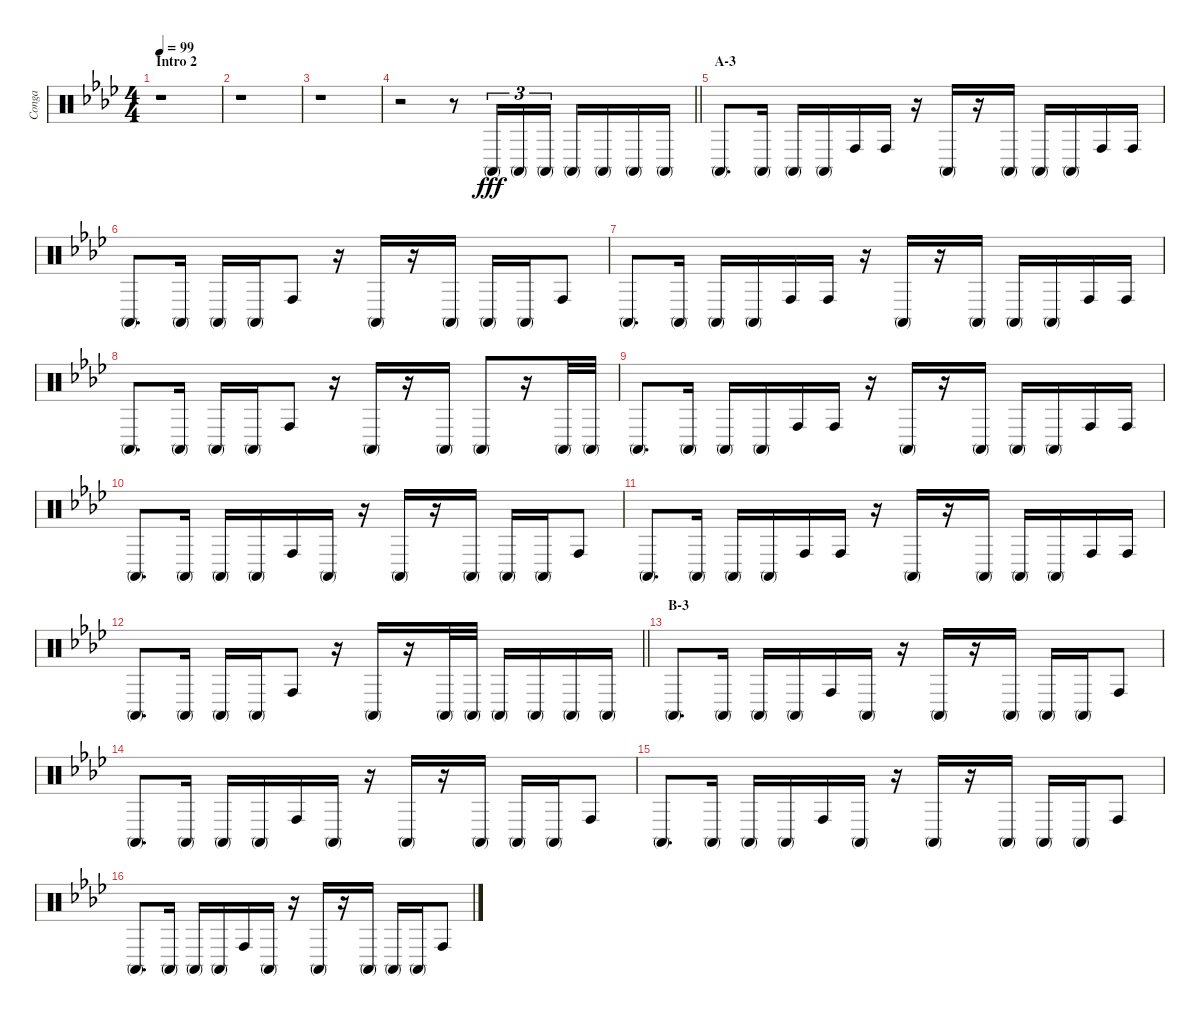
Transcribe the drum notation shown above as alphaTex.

\track ("Conga" "Conga") {instrument percussion}
\staff {score}
\articulation defaults
\ts (4 4)
\section ("" "Intro 2")
\tempo 99
\clef neutral
\ks ab
r.1{dy fff} |
r.1 |
r.1 |
\barLineRight lightlight
r.2 r.8 "Conga high (mute)".16{tu (3 2)} "Conga high (mute)".16{tu (3 2)} "Conga high (mute)".16{tu (3 2)} "Conga high (mute)".16 "Conga high (mute)".16 "Conga high (mute)".16 "Conga high (mute)".16 |
\section ("" "A-3")
"Conga high (mute)".8{d} "Conga high (mute)".16 "Conga high (mute)".16 "Conga high (mute)".16 "Conga high (hit)".16 "Conga high (hit)".16 r.16 "Conga high (mute)".16 r.16 "Conga high (mute)".16 "Conga high (mute)".16 "Conga high (mute)".16 "Conga high (hit)".16 "Conga high (hit)".16 |
"Conga high (mute)".8{d} "Conga high (mute)".16 "Conga high (mute)".16 "Conga high (mute)".16 "Conga high (hit)".8 r.16 "Conga high (mute)".16 r.16 "Conga high (mute)".16 "Conga high (mute)".16 "Conga high (mute)".16 "Conga high (hit)".8 |
"Conga high (mute)".8{d} "Conga high (mute)".16 "Conga high (mute)".16 "Conga high (mute)".16 "Conga high (hit)".16 "Conga high (hit)".16 r.16 "Conga high (mute)".16 r.16 "Conga high (mute)".16 "Conga high (mute)".16 "Conga high (mute)".16 "Conga high (hit)".16 "Conga high (hit)".16 |
"Conga high (mute)".8{d} "Conga high (mute)".16 "Conga high (mute)".16 "Conga high (mute)".16 "Conga high (hit)".8 r.16 "Conga high (mute)".16 r.16 "Conga high (mute)".16 "Conga high (mute)".8 r.16 "Conga high (mute)".32 "Conga high (mute)".32 |
"Conga high (mute)".8{d} "Conga high (mute)".16 "Conga high (mute)".16 "Conga high (mute)".16 "Conga high (hit)".16 "Conga high (hit)".16 r.16 "Conga high (mute)".16 r.16 "Conga high (mute)".16 "Conga high (mute)".16 "Conga high (mute)".16 "Conga high (hit)".16 "Conga high (hit)".16 |
"Conga high (mute)".8{d} "Conga high (mute)".16 "Conga high (mute)".16 "Conga high (mute)".16 "Conga high (hit)".16 "Conga high (mute)".16 r.16 "Conga high (mute)".16 r.16 "Conga high (mute)".16 "Conga high (mute)".16 "Conga high (mute)".16 "Conga high (hit)".8 |
"Conga high (mute)".8{d} "Conga high (mute)".16 "Conga high (mute)".16 "Conga high (mute)".16 "Conga high (hit)".16 "Conga high (hit)".16 r.16 "Conga high (mute)".16 r.16 "Conga high (mute)".16 "Conga high (mute)".16 "Conga high (mute)".16 "Conga high (hit)".16 "Conga high (hit)".16 |
\barLineRight lightlight "Conga high (mute)".8{d} "Conga high (mute)".16 "Conga high (mute)".16 "Conga high (mute)".16 "Conga high (hit)".8
r.16 "Conga high (mute)".16 r.16 "Conga high (mute)".32 "Conga high (mute)".32 "Conga high (mute)".16 "Conga high (mute)".16 "Conga high (mute)".16 "Conga high (mute)".16 |
\section ("" "B-3")
"Conga high (mute)".8{d} "Conga high (mute)".16 "Conga high (mute)".16 "Conga high (mute)".16 "Conga high (hit)".16 "Conga high (mute)".16 r.16 "Conga high (mute)".16 r.16 "Conga high (mute)".16 "Conga high (mute)".16 "Conga high (mute)".16 "Conga high (hit)".8 |
"Conga high (mute)".8{d} "Conga high (mute)".16 "Conga high (mute)".16 "Conga high (mute)".16 "Conga high (hit)".16 "Conga high (mute)".16 r.16 "Conga high (mute)".16 r.16 "Conga high (mute)".16 "Conga high (mute)".16 "Conga high (mute)".16 "Conga high (hit)".8 |
"Conga high (mute)".8{d} "Conga high (mute)".16 "Conga high (mute)".16 "Conga high (mute)".16 "Conga high (hit)".16 "Conga high (mute)".16 r.16 "Conga high (mute)".16 r.16 "Conga high (mute)".16 "Conga high (mute)".16 "Conga high (mute)".16 "Conga high (hit)".8 |
"Conga high (mute)".8{d} "Conga high (mute)".16 "Conga high (mute)".16 "Conga high (mute)".16 "Conga high (hit)".16 "Conga high (mute)".16 r.16 "Conga high (mute)".16 r.16 "Conga high (mute)".16 "Conga high (mute)".16 "Conga high (mute)".16 "Conga high (hit)".8
